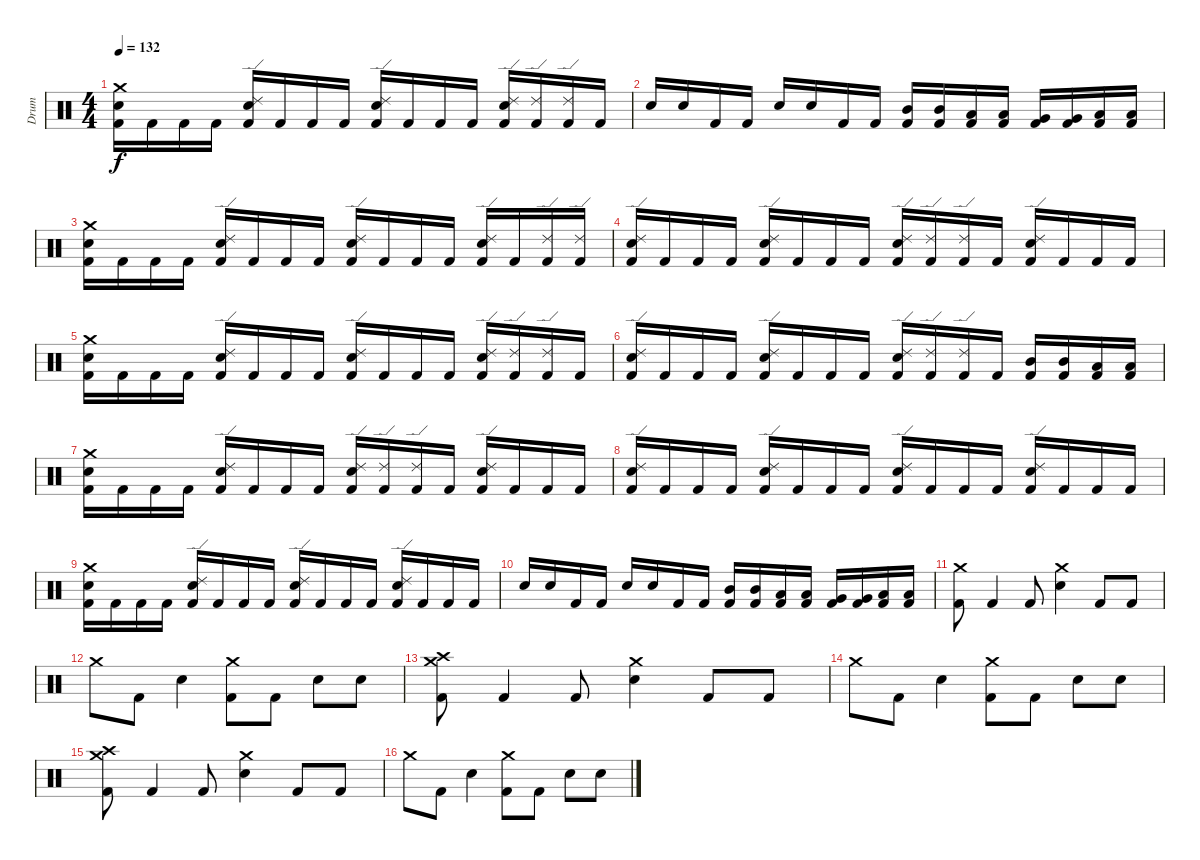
\track ("Drum" "Drum") {instrument percussion}
\staff {score}
\articulation defaults
\ts (4 4)
\tempo 132
\clef neutral
\ks c
("Crash medium (hit)" "Snare (hit) 2" "Kick (hit) 2").16{dy f} "Kick (hit) 2".16 "Kick (hit) 2".16 "Kick (hit) 2".16 ("Ride (edge) 2" "Snare (hit) 2" "Kick (hit) 2").16 "Kick (hit) 2".16 "Kick (hit) 2".16 "Kick (hit) 2".16 ("Ride (edge) 2" "Snare (hit) 2" "Kick (hit) 2").16 "Kick (hit) 2".16 "Kick (hit) 2".16 "Kick (hit) 2".16 ("Ride (edge) 2" "Snare (hit) 2" "Kick (hit) 2").16 ("Ride (edge) 2" "Kick (hit) 2").16 ("Ride (edge) 2" "Kick (hit) 2").16 "Kick (hit) 2".16 |
"Snare (hit) 2".16 "Snare (hit) 2".16 "Kick (hit) 2".16 "Kick (hit) 2".16 "Snare (hit) 2".16 "Snare (hit) 2".16 "Kick (hit) 2".16 "Kick (hit) 2".16 ("Mid Tom (hit)" "Kick (hit) 2").16 ("Mid Tom (hit)" "Kick (hit) 2").16 ("Low Tom (hit)" "Kick (hit) 2").16 ("Low Tom (hit)" "Kick (hit) 2").16 ("Very Low Tom (hit)" "Kick (hit) 2").16 ("Very Low Tom (hit)" "Kick (hit) 2").16 ("Low Floor Tom (hit)" "Kick (hit) 2").16 ("Low Floor Tom (hit)" "Kick (hit) 2").16 |
("Crash medium (hit)" "Snare (hit) 2" "Kick (hit) 2").16 "Kick (hit) 2".16 "Kick (hit) 2".16 "Kick (hit) 2".16 ("Ride (edge) 2" "Snare (hit) 2" "Kick (hit) 2").16 "Kick (hit) 2".16 "Kick (hit) 2".16 "Kick (hit) 2".16 ("Ride (edge) 2" "Snare (hit) 2" "Kick (hit) 2").16 "Kick (hit) 2".16 "Kick (hit) 2".16 "Kick (hit) 2".16 ("Ride (edge) 2" "Snare (hit) 2" "Kick (hit) 2").16 "Kick (hit) 2".16 ("Ride (edge) 2" "Kick (hit) 2").16 ("Ride (edge) 2" "Kick (hit) 2").16 |
("Ride (edge) 2" "Snare (hit) 2" "Kick (hit) 2").16 "Kick (hit) 2".16 "Kick (hit) 2".16 "Kick (hit) 2".16 ("Ride (edge) 2" "Snare (hit) 2" "Kick (hit) 2").16 "Kick (hit) 2".16 "Kick (hit) 2".16 "Kick (hit) 2".16 ("Ride (edge) 2" "Snare (hit) 2" "Kick (hit) 2").16 ("Ride (edge) 2" "Kick (hit) 2").16 ("Ride (edge) 2" "Kick (hit) 2").16 "Kick (hit) 2".16 ("Ride (edge) 2" "Snare (hit) 2" "Kick (hit) 2").16 "Kick (hit) 2".16 "Kick (hit) 2".16 "Kick (hit) 2".16 |
("Crash medium (hit)" "Snare (hit) 2" "Kick (hit) 2").16 "Kick (hit) 2".16 "Kick (hit) 2".16 "Kick (hit) 2".16 ("Ride (edge) 2" "Snare (hit) 2" "Kick (hit) 2").16 "Kick (hit) 2".16 "Kick (hit) 2".16 "Kick (hit) 2".16 ("Ride (edge) 2" "Snare (hit) 2" "Kick (hit) 2").16 "Kick (hit) 2".16 "Kick (hit) 2".16 "Kick (hit) 2".16 ("Ride (edge) 2" "Snare (hit) 2" "Kick (hit) 2").16 ("Ride (edge) 2" "Kick (hit) 2").16 ("Ride (edge) 2" "Kick (hit) 2").16 "Kick (hit) 2".16 |
("Ride (edge) 2" "Snare (hit) 2" "Kick (hit) 2").16 "Kick (hit) 2".16 "Kick (hit) 2".16 "Kick (hit) 2".16 ("Ride (edge) 2" "Snare (hit) 2" "Kick (hit) 2").16 "Kick (hit) 2".16 "Kick (hit) 2".16 "Kick (hit) 2".16 ("Ride (edge) 2" "Snare (hit) 2" "Kick (hit) 2").16 ("Ride (edge) 2" "Kick (hit) 2").16 ("Ride (edge) 2" "Kick (hit) 2").16 "Kick (hit) 2".16 ("Mid Tom (hit)" "Kick (hit) 2").16 ("Mid Tom (hit)" "Kick (hit) 2").16 ("Low Tom (hit)" "Kick (hit) 2").16 ("Low Tom (hit)" "Kick (hit) 2").16 |
("Crash medium (hit)" "Snare (hit) 2" "Kick (hit) 2").16 "Kick (hit) 2".16 "Kick (hit) 2".16 "Kick (hit) 2".16 ("Ride (edge) 2" "Snare (hit) 2" "Kick (hit) 2").16 "Kick (hit) 2".16 "Kick (hit) 2".16 "Kick (hit) 2".16 ("Ride (edge) 2" "Snare (hit) 2" "Kick (hit) 2").16 ("Ride (edge) 2" "Kick (hit) 2").16 ("Ride (edge) 2" "Kick (hit) 2").16 "Kick (hit) 2".16 ("Ride (edge) 2" "Snare (hit) 2" "Kick (hit) 2").16 "Kick (hit) 2".16 "Kick (hit) 2".16 "Kick (hit) 2".16 |
("Ride (edge) 2" "Snare (hit) 2" "Kick (hit) 2").16 "Kick (hit) 2".16 "Kick (hit) 2".16 "Kick (hit) 2".16 ("Ride (edge) 2" "Snare (hit) 2" "Kick (hit) 2").16 "Kick (hit) 2".16 "Kick (hit) 2".16 "Kick (hit) 2".16 ("Ride (edge) 2" "Snare (hit) 2" "Kick (hit) 2").16 "Kick (hit) 2".16 "Kick (hit) 2".16 "Kick (hit) 2".16 ("Ride (edge) 2" "Snare (hit) 2" "Kick (hit) 2").16 "Kick (hit) 2".16 "Kick (hit) 2".16 "Kick (hit) 2".16 |
("Crash medium (hit)" "Snare (hit) 2" "Kick (hit) 2").16 "Kick (hit) 2".16 "Kick (hit) 2".16 "Kick (hit) 2".16 ("Ride (edge) 2" "Snare (hit) 2" "Kick (hit) 2").16 "Kick (hit) 2".16 "Kick (hit) 2".16 "Kick (hit) 2".16 ("Ride (edge) 2" "Snare (hit) 2" "Kick (hit) 2").16 "Kick (hit) 2".16 "Kick (hit) 2".16 "Kick (hit) 2".16 ("Ride (edge) 2" "Snare (hit) 2" "Kick (hit) 2").16 "Kick (hit) 2".16 "Kick (hit) 2".16 "Kick (hit) 2".16 |
"Snare (hit) 2".16 "Snare (hit) 2".16 "Kick (hit) 2".16 "Kick (hit) 2".16 "Snare (hit) 2".16 "Snare (hit) 2".16 "Kick (hit) 2".16 "Kick (hit) 2".16 ("Mid Tom (hit)" "Kick (hit) 2").16 ("Mid Tom (hit)" "Kick (hit) 2").16 ("Low Tom (hit)" "Kick (hit) 2").16 ("Low Tom (hit)" "Kick (hit) 2").16 ("Very Low Tom (hit)" "Kick (hit) 2").16 ("Very Low Tom (hit)" "Kick (hit) 2").16 ("Low Floor Tom (hit)" "Kick (hit) 2").16 ("Low Floor Tom (hit)" "Kick (hit) 2").16 |
("Crash medium (hit)" "Kick (hit) 2").8 "Kick (hit) 2".4 "Kick (hit) 2".8 ("Crash medium (hit)" "Snare (hit) 2").4 "Kick (hit) 2".8 "Kick (hit) 2".8 |
"Crash medium (hit)".8 "Kick (hit) 2".8 "Snare (hit) 2".4 ("Crash medium (hit)" "Kick (hit) 2").8 "Kick (hit) 2".8 "Snare (hit) 2".8 "Snare (hit) 2".8 |
("Crash medium (hit)" "Crash high (hit)" "Kick (hit) 2").8 "Kick (hit) 2".4 "Kick (hit) 2".8 ("Crash medium (hit)" "Snare (hit) 2").4 "Kick (hit) 2".8 "Kick (hit) 2".8 |
"Crash medium (hit)".8 "Kick (hit) 2".8 "Snare (hit) 2".4 ("Crash medium (hit)" "Kick (hit) 2").8 "Kick (hit) 2".8 "Snare (hit) 2".8 "Snare (hit) 2".8 |
("Crash medium (hit)" "Crash high (hit)" "Kick (hit) 2").8 "Kick (hit) 2".4 "Kick (hit) 2".8 ("Crash medium (hit)" "Snare (hit) 2").4 "Kick (hit) 2".8 "Kick (hit) 2".8 |
"Crash medium (hit)".8 "Kick (hit) 2".8 "Snare (hit) 2".4 ("Crash medium (hit)" "Kick (hit) 2").8 "Kick (hit) 2".8 "Snare (hit) 2".8 "Snare (hit) 2".8
